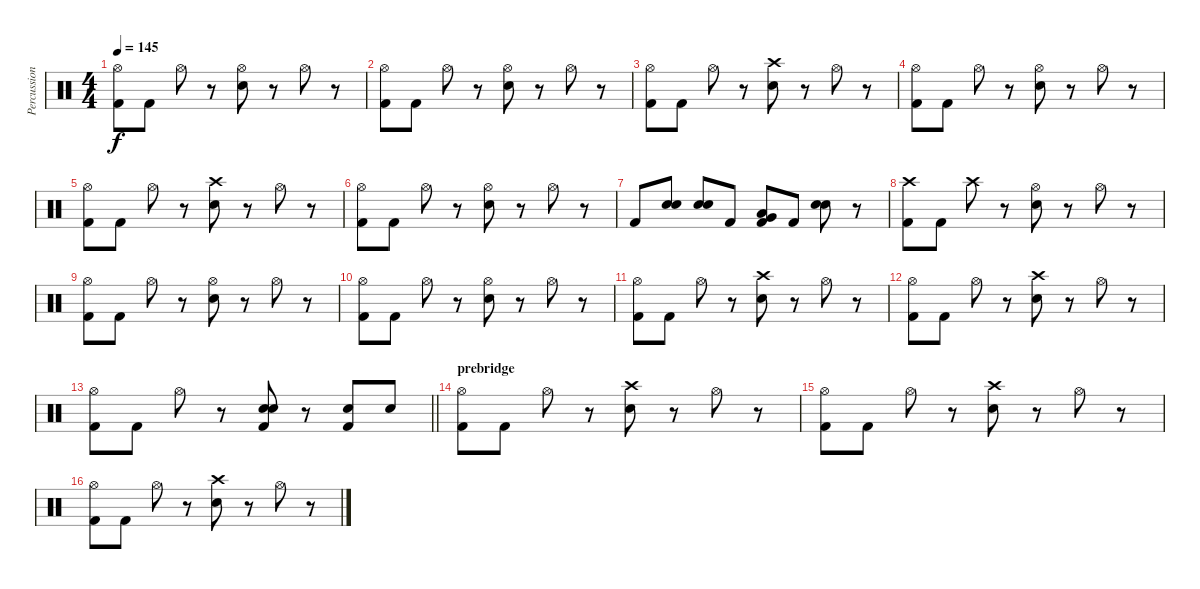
\track ("Percussion" "Percussion") {instrument percussion}
\staff {score}
\articulation defaults
\ts (4 4)
\tempo 145
\clef neutral
\ks c
("Hi-Hat (open)" "Kick (hit) 2").8{dy f} "Kick (hit) 2".8 "Hi-Hat (open)".8 r.8 ("Hi-Hat (open)" "Electric Snare (hit)").8 r.8 "Hi-Hat (open)".8 r.8 |
("Hi-Hat (open)" "Kick (hit) 2").8 "Kick (hit) 2".8 "Hi-Hat (open)".8 r.8 ("Hi-Hat (open)" "Electric Snare (hit)").8 r.8 "Hi-Hat (open)".8 r.8 |
("Hi-Hat (open)" "Kick (hit) 2").8 "Kick (hit) 2".8 "Hi-Hat (open)".8 r.8 ("Crash high (hit)" "Electric Snare (hit)").8 r.8 "Hi-Hat (open)".8 r.8 |
("Hi-Hat (open)" "Kick (hit) 2").8 "Kick (hit) 2".8 "Hi-Hat (open)".8 r.8 ("Hi-Hat (open)" "Electric Snare (hit)").8 r.8 "Hi-Hat (open)".8 r.8 |
("Hi-Hat (open)" "Kick (hit) 2").8 "Kick (hit) 2".8 "Hi-Hat (open)".8 r.8 ("Crash high (hit)" "Electric Snare (hit)").8 r.8 "Hi-Hat (open)".8 r.8 |
("Hi-Hat (open)" "Kick (hit) 2").8 "Kick (hit) 2".8 "Hi-Hat (open)".8 r.8 ("Hi-Hat (open)" "Electric Snare (hit)").8 r.8 "Hi-Hat (open)".8 r.8 |
"Kick (hit) 2".8 ("Electric Snare (hit)" "Electric Snare (hit)").8 ("Electric Snare (hit)" "Electric Snare (hit)").8 "Kick (hit) 2".8 ("Low Tom (hit)" "Very Low Tom (hit)" "Kick (hit) 2").8 "Kick (hit) 2".8 ("Electric Snare (hit)" "Electric Snare (hit)").8 r.8 |
("Crash high (hit)" "Kick (hit) 2").8 "Kick (hit) 2".8 "Crash high (hit)".8 r.8 ("Hi-Hat (open)" "Electric Snare (hit)").8 r.8 "Hi-Hat (open)".8 r.8 |
("Hi-Hat (open)" "Kick (hit) 2").8 "Kick (hit) 2".8 "Hi-Hat (open)".8 r.8 ("Hi-Hat (open)" "Electric Snare (hit)").8 r.8 "Hi-Hat (open)".8 r.8 |
("Hi-Hat (open)" "Kick (hit) 2").8 "Kick (hit) 2".8 "Hi-Hat (open)".8 r.8 ("Hi-Hat (open)" "Electric Snare (hit)").8 r.8 "Hi-Hat (open)".8 r.8 |
("Hi-Hat (open)" "Kick (hit) 2").8 "Kick (hit) 2".8 "Hi-Hat (open)".8 r.8 ("Crash high (hit)" "Electric Snare (hit)").8 r.8 "Hi-Hat (open)".8 r.8 |
("Hi-Hat (open)" "Kick (hit) 2").8 "Kick (hit) 2".8 "Hi-Hat (open)".8 r.8 ("Crash high (hit)" "Electric Snare (hit)").8 r.8 "Hi-Hat (open)".8 r.8 |
\barLineRight lightlight
("Hi-Hat (open)" "Kick (hit) 2").8 "Kick (hit) 2".8 "Hi-Hat (open)".8 r.8 ("Electric Snare (hit)" "Electric Snare (hit)" "Kick (hit) 2").8 r.8 ("Electric Snare (hit)" "Kick (hit) 2").8 "Electric Snare (hit)".8 |
\section ("" "prebridge")
("Hi-Hat (open)" "Kick (hit) 2").8 "Kick (hit) 2".8 "Hi-Hat (open)".8 r.8 ("Crash high (hit)" "Electric Snare (hit)").8 r.8 "Hi-Hat (open)".8 r.8 |
("Hi-Hat (open)" "Kick (hit) 2").8 "Kick (hit) 2".8 "Hi-Hat (open)".8 r.8 ("Crash high (hit)" "Electric Snare (hit)").8 r.8 "Hi-Hat (open)".8 r.8 |
("Hi-Hat (open)" "Kick (hit) 2").8 "Kick (hit) 2".8 "Hi-Hat (open)".8 r.8 ("Crash high (hit)" "Electric Snare (hit)").8 r.8 "Hi-Hat (open)".8 r.8
